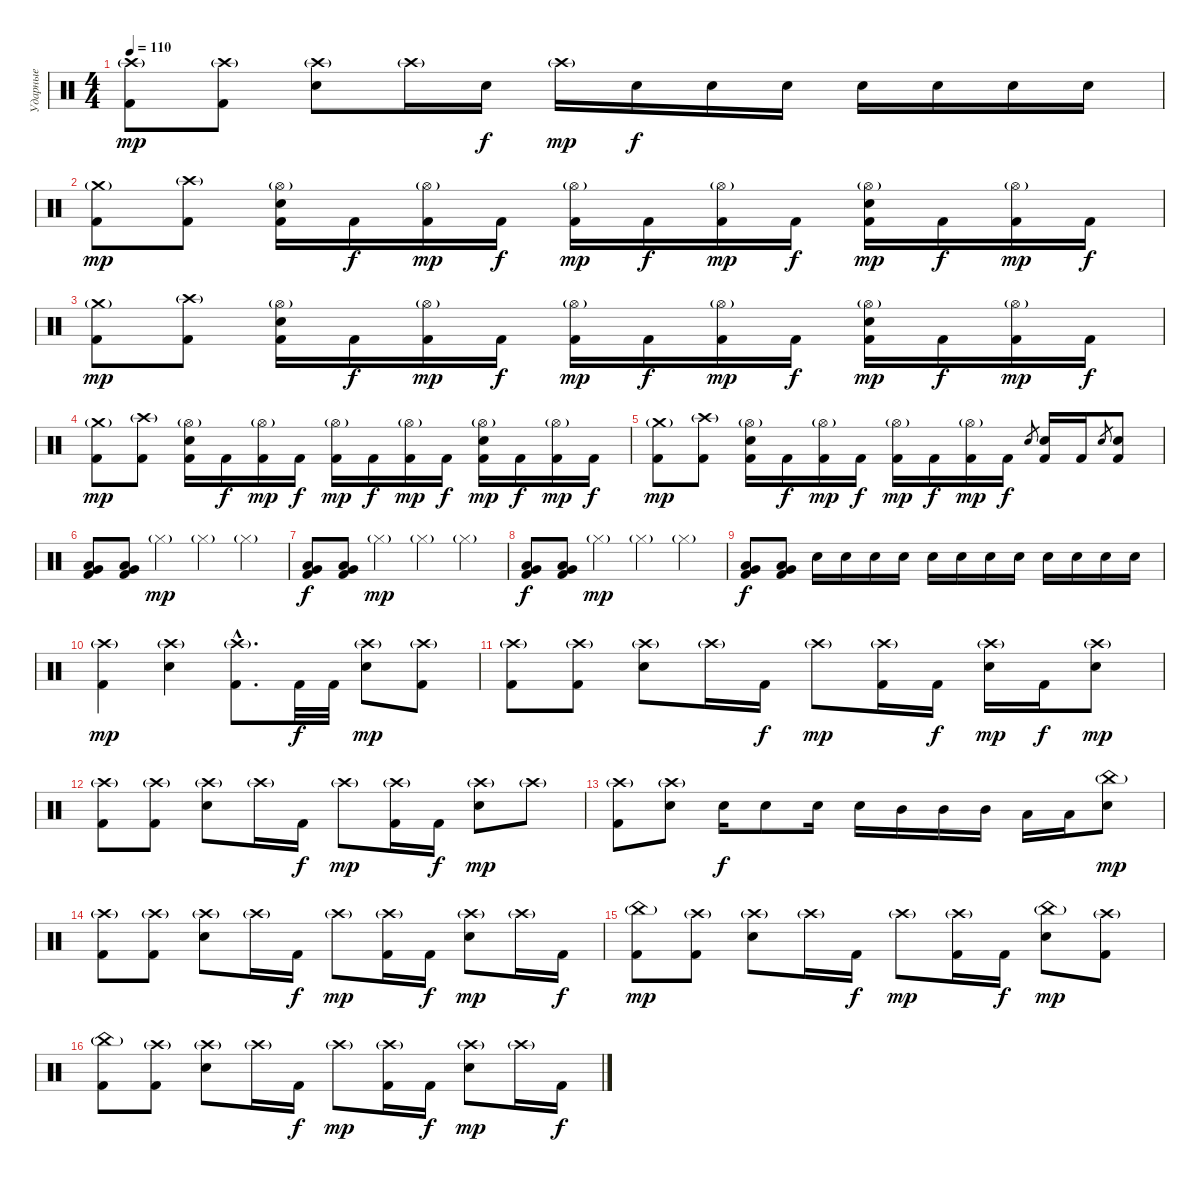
\track ("Ударные" "Ударные") {instrument percussion}
\staff {score}
\articulation defaults
\ts (4 4)
\tempo 110
\clef neutral
\ks c
("Crash high (hit)"{g} "Kick (hit) 2").8{dy mp} ("Crash high (hit)"{g} "Kick (hit) 2").8 ("Crash high (hit)"{g} "Electric Snare (hit)").8 "Crash high (hit)"{g}.16 "Electric Snare (hit)".16{dy f} "Crash high (hit)"{g}.16{dy mp} "Electric Snare (hit)".16{dy f} "Electric Snare (hit)".16 "Electric Snare (hit)".16 "Electric Snare (hit)".16 "Electric Snare (hit)".16 "Electric Snare (hit)".16 "Electric Snare (hit)".16 |
("Crash medium (hit)"{g} "Kick (hit) 2").8{dy mp} ("Crash high (hit)"{g} "Kick (hit) 2").8 ("Hi-Hat (open)"{g} "Electric Snare (hit)" "Kick (hit) 2").16 "Kick (hit) 2".16{dy f} ("Hi-Hat (open)"{g} "Kick (hit) 2").16{dy mp} "Kick (hit) 2".16{dy f} ("Hi-Hat (open)"{g} "Kick (hit) 2").16{dy mp} "Kick (hit) 2".16{dy f} ("Hi-Hat (open)"{g} "Kick (hit) 2").16{dy mp} "Kick (hit) 2".16{dy f} ("Hi-Hat (open)"{g} "Electric Snare (hit)" "Kick (hit) 2").16{dy mp} "Kick (hit) 2".16{dy f} ("Hi-Hat (open)"{g} "Kick (hit) 2").16{dy mp} "Kick (hit) 2".16{dy f} |
("Crash medium (hit)"{g} "Kick (hit) 2").8{dy mp} ("Crash high (hit)"{g} "Kick (hit) 2").8 ("Hi-Hat (open)"{g} "Electric Snare (hit)" "Kick (hit) 2").16 "Kick (hit) 2".16{dy f} ("Hi-Hat (open)"{g} "Kick (hit) 2").16{dy mp} "Kick (hit) 2".16{dy f} ("Hi-Hat (open)"{g} "Kick (hit) 2").16{dy mp} "Kick (hit) 2".16{dy f} ("Hi-Hat (open)"{g} "Kick (hit) 2").16{dy mp} "Kick (hit) 2".16{dy f} ("Hi-Hat (open)"{g} "Electric Snare (hit)" "Kick (hit) 2").16{dy mp} "Kick (hit) 2".16{dy f} ("Hi-Hat (open)"{g} "Kick (hit) 2").16{dy mp} "Kick (hit) 2".16{dy f} |
("Crash medium (hit)"{g} "Kick (hit) 2").8{dy mp} ("Crash high (hit)"{g} "Kick (hit) 2").8 ("Hi-Hat (open)"{g} "Electric Snare (hit)" "Kick (hit) 2").16 "Kick (hit) 2".16{dy f} ("Hi-Hat (open)"{g} "Kick (hit) 2").16{dy mp} "Kick (hit) 2".16{dy f} ("Hi-Hat (open)"{g} "Kick (hit) 2").16{dy mp} "Kick (hit) 2".16{dy f} ("Hi-Hat (open)"{g} "Kick (hit) 2").16{dy mp} "Kick (hit) 2".16{dy f} ("Hi-Hat (open)"{g} "Electric Snare (hit)" "Kick (hit) 2").16{dy mp} "Kick (hit) 2".16{dy f} ("Hi-Hat (open)"{g} "Kick (hit) 2").16{dy mp} "Kick (hit) 2".16{dy f} |
("Crash medium (hit)"{g} "Kick (hit) 2").8{dy mp} ("Crash high (hit)"{g} "Kick (hit) 2").8 ("Hi-Hat (open)"{g} "Electric Snare (hit)" "Kick (hit) 2").16 "Kick (hit) 2".16{dy f} ("Hi-Hat (open)"{g} "Kick (hit) 2").16{dy mp} "Kick (hit) 2".16{dy f} ("Hi-Hat (open)"{g} "Kick (hit) 2").16{dy mp} "Kick (hit) 2".16{dy f} ("Hi-Hat (open)"{g} "Kick (hit) 2").16{dy mp} "Kick (hit) 2".16{dy f} "Electric Snare (hit)".8{gr} ("Electric Snare (hit)" "Kick (hit) 2").16 "Kick (hit) 2".16 "Electric Snare (hit)".8{gr} ("Electric Snare (hit)" "Kick (hit) 2").8 |
("Very Low Tom (hit)" "Low Tom (hit)" "Kick (hit) 2").8 ("Very Low Tom (hit)" "Low Tom (hit)" "Kick (hit) 2").8 "Hi-Hat (closed)"{g}.4{dy mp} "Hi-Hat (closed)"{g}.4 "Hi-Hat (closed)"{g}.4 |
("Very Low Tom (hit)" "Low Tom (hit)" "Kick (hit) 2").8{dy f} ("Very Low Tom (hit)" "Low Tom (hit)" "Kick (hit) 2").8 "Hi-Hat (closed)"{g}.4{dy mp} "Hi-Hat (closed)"{g}.4 "Hi-Hat (closed)"{g}.4 |
("Very Low Tom (hit)" "Low Tom (hit)" "Kick (hit) 2").8{dy f} ("Very Low Tom (hit)" "Low Tom (hit)" "Kick (hit) 2").8 "Hi-Hat (closed)"{g}.4{dy mp} "Hi-Hat (closed)"{g}.4 "Hi-Hat (closed)"{g}.4 |
("Very Low Tom (hit)" "Low Tom (hit)" "Kick (hit) 2").8{dy f} ("Very Low Tom (hit)" "Low Tom (hit)" "Kick (hit) 2").8 "Electric Snare (hit)".16{volume 6} "Electric Snare (hit)".16{volume 16} "Electric Snare (hit)".16 "Electric Snare (hit)".16 "Electric Snare (hit)".16 "Electric Snare (hit)".16 "Electric Snare (hit)".16 "Electric Snare (hit)".16 "Electric Snare (hit)".16 "Electric Snare (hit)".16 "Electric Snare (hit)".16 "Electric Snare (hit)".16 |
("Crash high (hit)"{g} "Kick (hit) 2").4{dy mp} ("Crash high (hit)"{g} "Electric Snare (hit)").4 ("Crash high (hit)"{g hac} "Kick (hit) 2"{hac}).8{d} "Kick (hit) 2".32{dy f} "Kick (hit) 2".32 ("Crash high (hit)"{g} "Electric Snare (hit)").8{dy mp} ("Crash high (hit)"{g} "Kick (hit) 2").8 |
("Crash high (hit)"{g} "Kick (hit) 2").8 ("Crash high (hit)"{g} "Kick (hit) 2").8 ("Crash high (hit)"{g} "Electric Snare (hit)").8 "Crash high (hit)"{g}.16 "Kick (hit) 2".16{dy f} "Crash high (hit)"{g}.8{dy mp} ("Crash high (hit)"{g} "Kick (hit) 2").16 "Kick (hit) 2".16{dy f} ("Crash high (hit)"{g} "Electric Snare (hit)").16{dy mp} "Kick (hit) 2".16{dy f} ("Crash high (hit)"{g} "Electric Snare (hit)").8{dy mp} |
("Crash high (hit)"{g} "Kick (hit) 2").8 ("Crash high (hit)"{g} "Kick (hit) 2").8 ("Crash high (hit)"{g} "Electric Snare (hit)").8 "Crash high (hit)"{g}.16 "Kick (hit) 2".16{dy f} "Crash high (hit)"{g}.8{dy mp} ("Crash high (hit)"{g} "Kick (hit) 2").16 "Kick (hit) 2".16{dy f} ("Crash high (hit)"{g} "Electric Snare (hit)").8{dy mp} "Crash high (hit)"{g}.8 |
("Crash high (hit)"{g} "Kick (hit) 2").8 ("Crash high (hit)"{g} "Electric Snare (hit)").8 "Electric Snare (hit)".16{dy f} "Electric Snare (hit)".8 "Electric Snare (hit)".16 "Electric Snare (hit)".16 "Mid Tom (hit)".16 "Mid Tom (hit)".16 "Mid Tom (hit)".16 "Low Tom (hit)".16 "Low Tom (hit)".16 ("China (hit)"{g} "Electric Snare (hit)").8{dy mp} |
("Crash high (hit)"{g} "Kick (hit) 2").8 ("Crash high (hit)"{g} "Kick (hit) 2").8 ("Crash high (hit)"{g} "Electric Snare (hit)").8 "Crash high (hit)"{g}.16 "Kick (hit) 2".16{dy f} "Crash high (hit)"{g}.8{dy mp} ("Crash high (hit)"{g} "Kick (hit) 2").16 "Kick (hit) 2".16{dy f} ("Crash high (hit)"{g} "Electric Snare (hit)").8{dy mp} "Crash high (hit)"{g}.16 "Kick (hit) 2".16{dy f} |
("China (hit)"{g} "Kick (hit) 2").8{dy mp} ("Crash high (hit)"{g} "Kick (hit) 2").8 ("Crash high (hit)"{g} "Electric Snare (hit)").8 "Crash high (hit)"{g}.16 "Kick (hit) 2".16{dy f} "Crash high (hit)"{g}.8{dy mp} ("Crash high (hit)"{g} "Kick (hit) 2").16 "Kick (hit) 2".16{dy f} ("China (hit)"{g} "Electric Snare (hit)").8{dy mp} ("Crash high (hit)"{g} "Kick (hit) 2").8 |
("China (hit)"{g} "Kick (hit) 2").8 ("Crash high (hit)"{g} "Kick (hit) 2").8 ("Crash high (hit)"{g} "Electric Snare (hit)").8 "Crash high (hit)"{g}.16 "Kick (hit) 2".16{dy f} "Crash high (hit)"{g}.8{dy mp} ("Crash high (hit)"{g} "Kick (hit) 2").16 "Kick (hit) 2".16{dy f} ("Crash high (hit)"{g} "Electric Snare (hit)").8{dy mp} "Crash high (hit)"{g}.16 "Kick (hit) 2".16{dy f}
